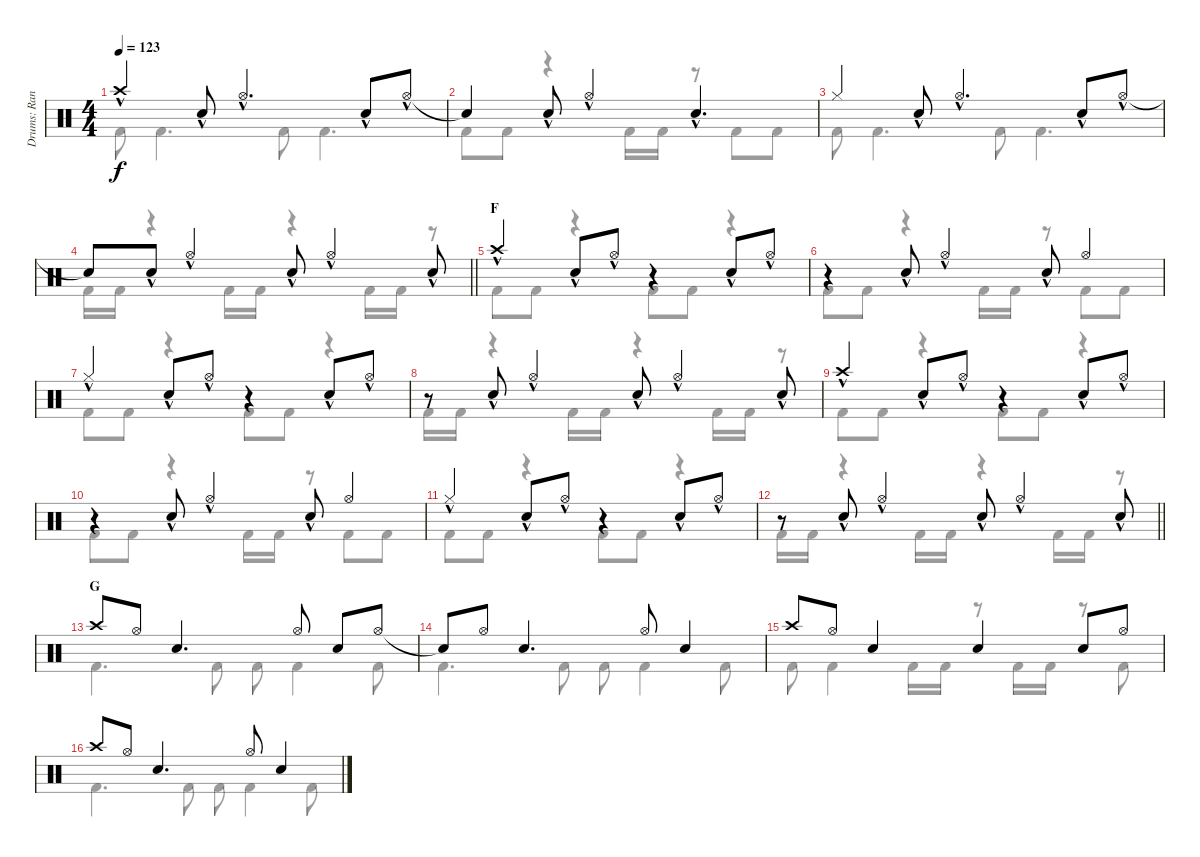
\track ("Drums: Randy" "Drums: Ran") {instrument percussion}
\staff {score}
\articulation defaults
\voice
\ts (4 4)
\tempo 123
\clef neutral
\ks c "Crash high (hit)"{hac}.4{dy f} "Snare (hit) 2"{hac}.8 "Hi-Hat (open)"{hac}.4{d} "Snare (hit) 2"{hac}.8 "Hi-Hat (open)"{hac}.8
|
"Snare (hit)"{t}.4 "Snare (hit) 2"{hac}.8 "Hi-Hat (open)"{hac}.4 "Snare (hit) 2"{hac}.4{d} |
"Hi-Hat (closed)".4 "Snare (hit) 2"{hac}.8 "Hi-Hat (open)"{hac}.4{d} "Snare (hit) 2"{hac}.8 "Hi-Hat (open)"{hac}.8 |
\barLineRight lightlight "Snare (hit)"{t}.8 "Snare (hit) 2"{hac}.8 "Hi-Hat (open)"{hac}.4 "Snare (hit) 2"{hac}.8 "Hi-Hat (open)"{hac}.4 "Snare (hit) 2"{hac}.8
|
\section ("" "F")
"Crash high (hit)"{hac}.4 "Snare (hit) 2"{hac}.8 "Hi-Hat (open)"{hac}.8 r.4 "Snare (hit) 2"{hac}.8 "Hi-Hat (open)"{hac}.8 |
r.4 "Snare (hit) 2"{hac}.8 "Hi-Hat (open)"{hac}.4 "Snare (hit) 2"{hac}.8 "Hi-Hat (open)".4 |
"Hi-Hat (closed)"{hac}.4 "Snare (hit) 2"{hac}.8 "Hi-Hat (open)"{hac}.8 r.4 "Snare (hit) 2"{hac}.8 "Hi-Hat (open)"{hac}.8 |
r.8 "Snare (hit) 2"{hac}.8 "Hi-Hat (open)"{hac}.4 "Snare (hit) 2"{hac}.8 "Hi-Hat (open)"{hac}.4 "Snare (hit) 2"{hac}.8 |
"Crash high (hit)"{hac}.4 "Snare (hit) 2"{hac}.8 "Hi-Hat (open)"{hac}.8 r.4 "Snare (hit) 2"{hac}.8 "Hi-Hat (open)"{hac}.8 |
r.4 "Snare (hit) 2"{hac}.8 "Hi-Hat (open)"{hac}.4 "Snare (hit) 2"{hac}.8 "Hi-Hat (open)".4 |
"Hi-Hat (closed)"{hac}.4 "Snare (hit) 2"{hac}.8 "Hi-Hat (open)"{hac}.8 r.4 "Snare (hit) 2"{hac}.8 "Hi-Hat (open)"{hac}.8 |
\barLineRight lightlight
r.8 "Snare (hit) 2"{hac}.8 "Hi-Hat (open)"{hac}.4 "Snare (hit) 2"{hac}.8 "Hi-Hat (open)"{hac}.4 "Snare (hit) 2"{hac}.8 |
\section ("" "G")
"Crash high (hit)".8 "Hi-Hat (open)".8 "Snare (hit) 2".4{d} "Hi-Hat (open)".8 "Snare (hit) 2".8 "Hi-Hat (open)".8 |
"Snare (hit)"{t}.8 "Hi-Hat (open)".8 "Snare (hit) 2".4{d} "Hi-Hat (open)".8 "Snare (hit) 2".4 |
"Crash high (hit)".8 "Hi-Hat (open)".8 "Snare (hit) 2".4 "Snare (hit) 2".4 "Snare (hit) 2".8 "Hi-Hat (open)".8 |
"Crash high (hit)".8 "Hi-Hat (open)".8 "Snare (hit) 2".4{d} "Hi-Hat (open)".8 "Snare (hit) 2".4
\voice
\clef neutral
\ottava regular
\simile none
\ks c "Kick (hit) 2".8{dy f} "Kick (hit) 2".4{d} "Kick (hit) 2".8 "Kick (hit) 2".4{d}
|
"Kick (hit) 2".8 "Kick (hit) 2".8 r.4 "Kick (hit) 2".16 "Kick (hit) 2".16 r.8 "Kick (hit) 2".8 "Kick (hit) 2".8 |
"Kick (hit) 2".8 "Kick (hit) 2".4{d} "Kick (hit) 2".8 "Kick (hit) 2".4{d} |
\barLineRight lightlight "Kick (hit) 2".16 "Kick (hit) 2".16
r.4 "Kick (hit) 2".16 "Kick (hit) 2".16 r.4 "Kick (hit) 2".16 "Kick (hit) 2".16 r.8 |
"Kick (hit) 2".8 "Kick (hit) 2".8 r.4 "Kick (hit) 2".8 "Kick (hit) 2".8 r.4 |
"Kick (hit) 2".8 "Kick (hit) 2".8 r.4 "Kick (hit) 2".16 "Kick (hit) 2".16 r.8 "Kick (hit) 2".8 "Kick (hit) 2".8 |
"Kick (hit) 2".8 "Kick (hit) 2".8 r.4 "Kick (hit) 2".8 "Kick (hit) 2".8 r.4 |
"Kick (hit) 2".16 "Kick (hit) 2".16 r.4 "Kick (hit) 2".16 "Kick (hit) 2".16 r.4 "Kick (hit) 2".16 "Kick (hit) 2".16 r.8 |
"Kick (hit) 2".8 "Kick (hit) 2".8 r.4 "Kick (hit) 2".8 "Kick (hit) 2".8 r.4 |
"Kick (hit) 2".8 "Kick (hit) 2".8 r.4 "Kick (hit) 2".16 "Kick (hit) 2".16 r.8 "Kick (hit) 2".8 "Kick (hit) 2".8 |
"Kick (hit) 2".8 "Kick (hit) 2".8 r.4 "Kick (hit) 2".8 "Kick (hit) 2".8 r.4 |
\barLineRight lightlight "Kick (hit) 2".16 "Kick (hit) 2".16
r.4 "Kick (hit) 2".16 "Kick (hit) 2".16 r.4 "Kick (hit) 2".16 "Kick (hit) 2".16 r.8 |
"Kick (hit) 2".4{d} "Kick (hit) 2".8 "Kick (hit) 2".8 "Kick (hit) 2".4 "Kick (hit) 2".8 |
"Kick (hit) 2".4{d} "Kick (hit) 2".8 "Kick (hit) 2".8 "Kick (hit) 2".4 "Kick (hit) 2".8 |
"Kick (hit) 2".8 "Kick (hit) 2".4 "Kick (hit) 2".16 "Kick (hit) 2".16 r.8 "Kick (hit) 2".16 "Kick (hit) 2".16 r.8 "Kick (hit) 2".8 |
"Kick (hit) 2".4{d} "Kick (hit) 2".8 "Kick (hit) 2".8 "Kick (hit) 2".4 "Kick (hit) 2".8
